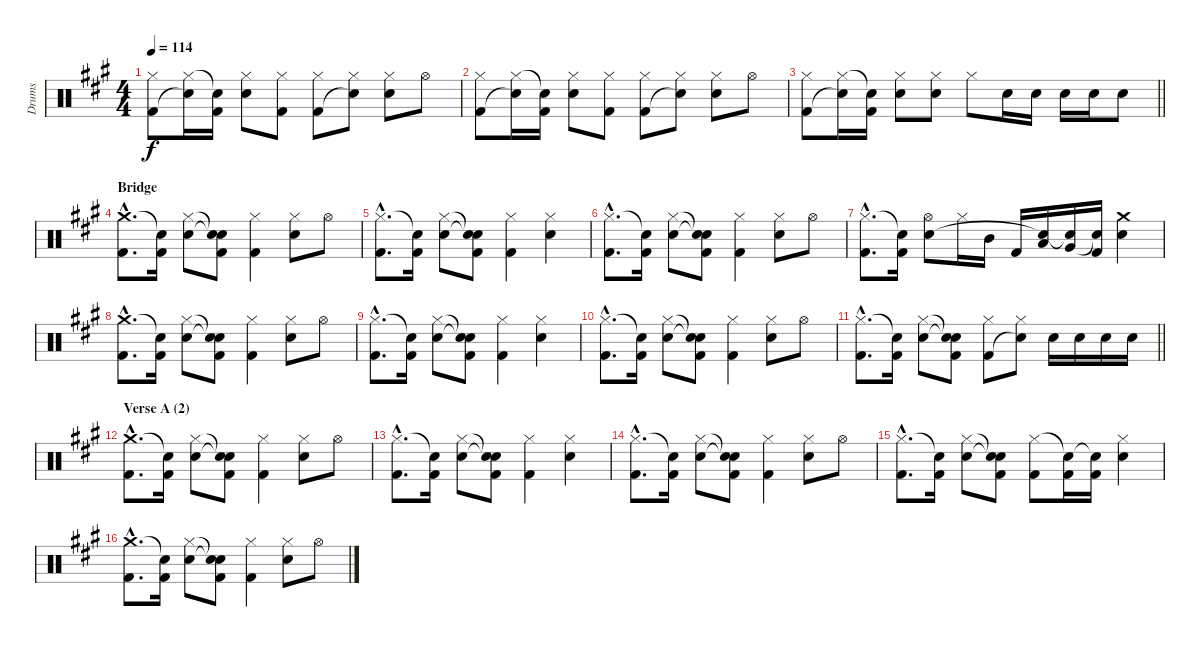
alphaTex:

\track ("Drums" "Drums") {instrument percussion}
\staff {score}
\articulation defaults
\ts (4 4)
\tempo 114
\clef neutral
\ks a
("Hi-Hat (closed)" "Kick (hit) 2").8{dy f} ("Hi-Hat (closed)" "Snare (hit)"{t}).16 ("Snare (hit)"{t} "Kick (hit) 2").16 ("Hi-Hat (closed)" "Electric Snare (hit)").8 ("Hi-Hat (closed)" "Kick (hit) 2").8 ("Hi-Hat (closed)" "Kick (hit) 2").8 ("Hi-Hat (closed)" "Snare (hit)"{t}).8 ("Hi-Hat (closed)" "Electric Snare (hit)").8 "Hi-Hat (open)".8 |
("Hi-Hat (closed)" "Kick (hit) 2").8 ("Hi-Hat (closed)" "Snare (hit)"{t}).16 ("Snare (hit)"{t} "Kick (hit) 2").16 ("Hi-Hat (closed)" "Electric Snare (hit)").8 ("Hi-Hat (closed)" "Kick (hit) 2").8 ("Hi-Hat (closed)" "Kick (hit) 2").8 ("Hi-Hat (closed)" "Snare (hit)"{t}).8 ("Hi-Hat (closed)" "Electric Snare (hit)").8 "Hi-Hat (open)".8 |
\barLineRight lightlight
("Hi-Hat (closed)" "Kick (hit) 2").8 ("Hi-Hat (closed)" "Snare (hit)"{t}).16 ("Snare (hit)"{t} "Kick (hit) 2").16 ("Hi-Hat (closed)" "Electric Snare (hit)").8 ("Hi-Hat (closed)" "Electric Snare (hit)").8 "Hi-Hat (closed)".8 "Electric Snare (hit)".16 "Electric Snare (hit)".16 "Electric Snare (hit)".16 "Electric Snare (hit)".16 "Electric Snare (hit)".8 |
\section ("" "Bridge")
("Crash medium (hit)"{hac} "Kick (hit) 2"{hac}).8{d} ("Snare (hit)"{t} "Kick (hit) 2").16 ("Hi-Hat (closed)" "Electric Snare (hit)").8 ("Snare (hit)"{t} "Snare (hit)"{t} "Kick (hit) 2").8 ("Hi-Hat (closed)" "Kick (hit) 2").4 ("Hi-Hat (closed)" "Electric Snare (hit)").8 "Hi-Hat (open)".8 |
("Hi-Hat (closed)"{hac} "Kick (hit) 2"{hac}).8{d} ("Snare (hit)"{t} "Kick (hit) 2").16 ("Hi-Hat (closed)" "Electric Snare (hit)").8 ("Snare (hit)"{t} "Snare (hit)"{t} "Kick (hit) 2").8 ("Hi-Hat (closed)" "Kick (hit) 2").4 ("Hi-Hat (closed)" "Electric Snare (hit)").4 |
("Hi-Hat (closed)"{hac} "Kick (hit) 2"{hac}).8{d} ("Snare (hit)"{t} "Kick (hit) 2").16 ("Hi-Hat (closed)" "Electric Snare (hit)").8 ("Snare (hit)"{t} "Snare (hit)"{t} "Kick (hit) 2").8 ("Hi-Hat (closed)" "Kick (hit) 2").4 ("Hi-Hat (closed)" "Electric Snare (hit)").8 "Hi-Hat (open)".8 |
("Hi-Hat (closed)"{hac} "Kick (hit) 2"{hac}).8{d} ("Snare (hit)"{t} "Kick (hit) 2").16 ("Hi-Hat (open)" "Electric Snare (hit)").8 "Hi-Hat (closed)".16 "Mid Tom (hit)".16 "Kick (hit) 2".16 ("Low Tom (hit)" "Snare (hit)"{t}).16 ("Very Low Tom (hit)" "Snare (hit)"{t}).16 ("Snare (hit)"{t} "Kick (hit) 2").16 ("Crash medium (hit)" "Electric Snare (hit)").4 |
("Crash medium (hit)"{hac} "Kick (hit) 2"{hac}).8{d} ("Snare (hit)"{t} "Kick (hit) 2").16 ("Hi-Hat (closed)" "Electric Snare (hit)").8 ("Snare (hit)"{t} "Snare (hit)"{t} "Kick (hit) 2").8 ("Hi-Hat (closed)" "Kick (hit) 2").4 ("Hi-Hat (closed)" "Electric Snare (hit)").8 "Hi-Hat (open)".8 |
("Hi-Hat (closed)"{hac} "Kick (hit) 2"{hac}).8{d} ("Snare (hit)"{t} "Kick (hit) 2").16 ("Hi-Hat (closed)" "Electric Snare (hit)").8 ("Snare (hit)"{t} "Snare (hit)"{t} "Kick (hit) 2").8 ("Hi-Hat (closed)" "Kick (hit) 2").4 ("Hi-Hat (closed)" "Electric Snare (hit)").4 |
("Hi-Hat (closed)"{hac} "Kick (hit) 2"{hac}).8{d} ("Snare (hit)"{t} "Kick (hit) 2").16 ("Hi-Hat (closed)" "Electric Snare (hit)").8 ("Snare (hit)"{t} "Snare (hit)"{t} "Kick (hit) 2").8 ("Hi-Hat (closed)" "Kick (hit) 2").4 ("Hi-Hat (closed)" "Electric Snare (hit)").8 "Hi-Hat (open)".8 |
\barLineRight lightlight
("Hi-Hat (closed)"{hac} "Kick (hit) 2"{hac}).8{d} ("Snare (hit)"{t} "Kick (hit) 2").16 ("Hi-Hat (closed)" "Electric Snare (hit)").8 ("Snare (hit)"{t} "Snare (hit)"{t} "Kick (hit) 2").8 ("Hi-Hat (closed)" "Kick (hit) 2").8 ("Hi-Hat (closed)" "Snare (hit)"{t}).8 "Electric Snare (hit)".16 "Electric Snare (hit)".16 "Electric Snare (hit)".16 "Electric Snare (hit)".16 |
\section ("" "Verse A (2)")
("Crash medium (hit)"{hac} "Kick (hit) 2"{hac}).8{d} ("Snare (hit)"{t} "Kick (hit) 2").16 ("Hi-Hat (closed)" "Electric Snare (hit)").8 ("Snare (hit)"{t} "Snare (hit)"{t} "Kick (hit) 2").8 ("Hi-Hat (closed)" "Kick (hit) 2").4 ("Hi-Hat (closed)" "Electric Snare (hit)").8 "Hi-Hat (open)".8 |
("Hi-Hat (closed)"{hac} "Kick (hit) 2"{hac}).8{d} ("Snare (hit)"{t} "Kick (hit) 2").16 ("Hi-Hat (closed)" "Electric Snare (hit)").8 ("Snare (hit)"{t} "Snare (hit)"{t} "Kick (hit) 2").8 ("Hi-Hat (closed)" "Kick (hit) 2").4 ("Hi-Hat (closed)" "Electric Snare (hit)").4 |
("Hi-Hat (closed)"{hac} "Kick (hit) 2"{hac}).8{d} ("Snare (hit)"{t} "Kick (hit) 2").16 ("Hi-Hat (closed)" "Electric Snare (hit)").8 ("Snare (hit)"{t} "Snare (hit)"{t} "Kick (hit) 2").8 ("Hi-Hat (closed)" "Kick (hit) 2").4 ("Hi-Hat (closed)" "Electric Snare (hit)").8 "Hi-Hat (open)".8 |
("Hi-Hat (closed)"{hac} "Kick (hit) 2"{hac}).8{d} ("Snare (hit)"{t} "Kick (hit) 2").16 ("Hi-Hat (closed)" "Electric Snare (hit)").8 ("Snare (hit)"{t} "Snare (hit)"{t} "Kick (hit) 2").8 ("Hi-Hat (closed)" "Kick (hit) 2").8 ("Snare (hit)"{t} "Kick (hit) 2").16 ("Snare (hit)"{t} "Kick (hit) 2").16 ("Hi-Hat (closed)" "Electric Snare (hit)").4 |
("Crash medium (hit)"{hac} "Kick (hit) 2"{hac}).8{d} ("Snare (hit)"{t} "Kick (hit) 2").16 ("Hi-Hat (closed)" "Electric Snare (hit)").8 ("Snare (hit)"{t} "Snare (hit)"{t} "Kick (hit) 2").8 ("Hi-Hat (closed)" "Kick (hit) 2").4 ("Hi-Hat (closed)" "Electric Snare (hit)").8 "Hi-Hat (open)".8
